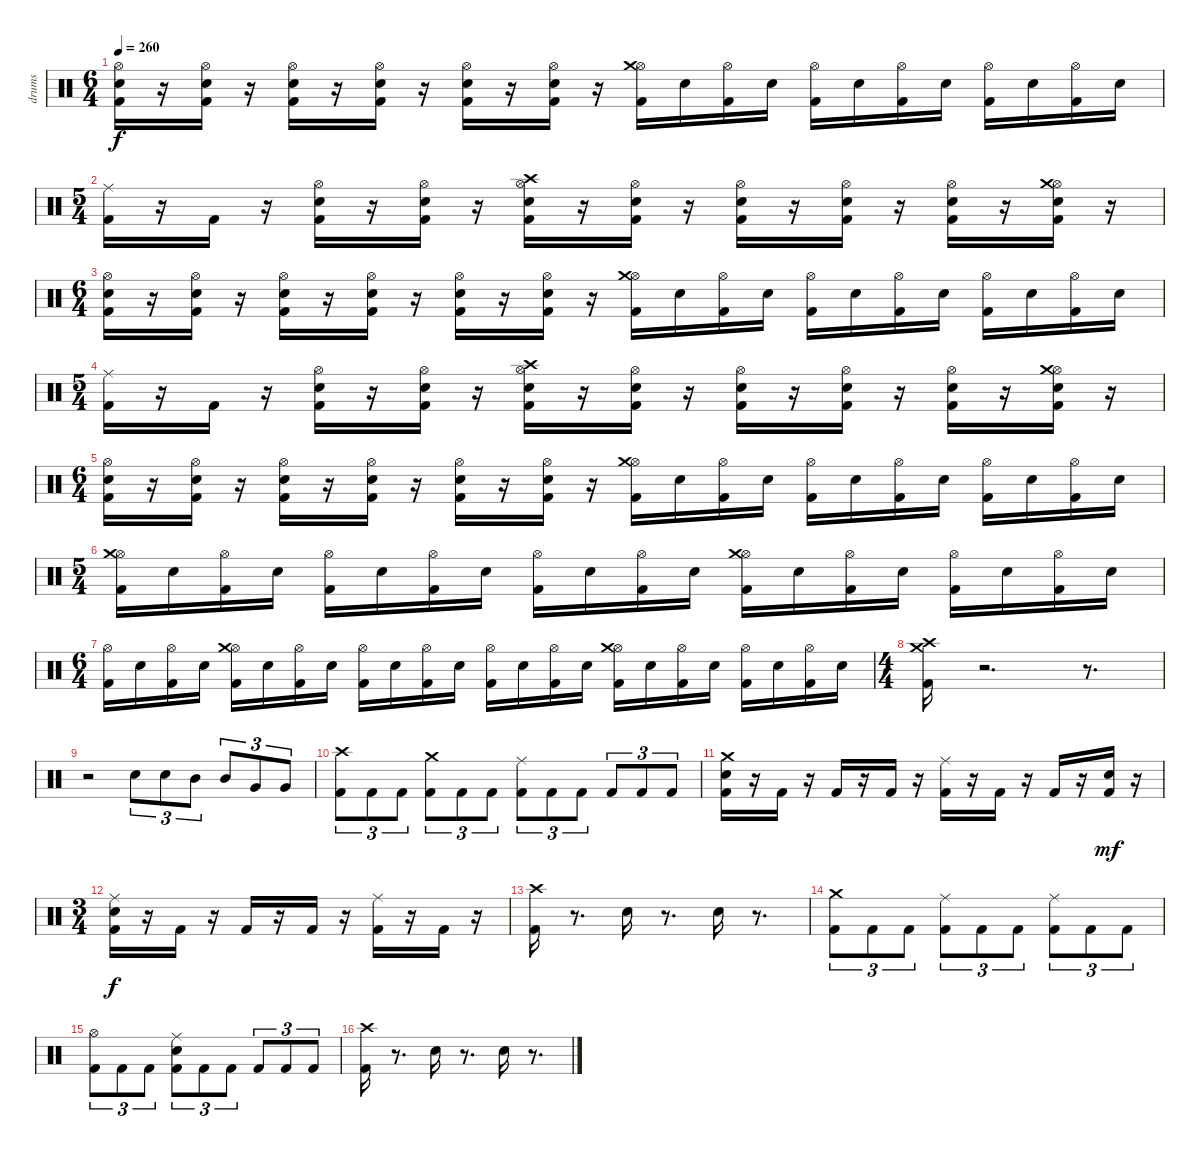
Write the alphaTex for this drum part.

\track ("drums" "drums") {instrument percussion}
\staff {score}
\articulation defaults
\ts (6 4)
\tempo 260
\clef neutral
\ks c
("Kick (hit) 2" "Snare (hit) 2" "Hi-Hat (open)").16{dy f} r.16 ("Kick (hit) 2" "Snare (hit) 2" "Hi-Hat (open)").16 r.16 ("Kick (hit) 2" "Snare (hit) 2" "Hi-Hat (open)").16 r.16 ("Kick (hit) 2" "Snare (hit) 2" "Hi-Hat (open)").16 r.16 ("Kick (hit) 2" "Snare (hit) 2" "Hi-Hat (open)").16 r.16 ("Kick (hit) 2" "Snare (hit) 2" "Hi-Hat (open)").16 r.16 ("Kick (hit) 2" "Hi-Hat (open)" "Crash medium (hit)").16 "Snare (hit) 2".16 ("Kick (hit) 2" "Hi-Hat (open)").16 "Snare (hit) 2".16 ("Kick (hit) 2" "Hi-Hat (open)").16 "Snare (hit) 2".16 ("Kick (hit) 2" "Hi-Hat (open)").16 "Snare (hit) 2".16 ("Kick (hit) 2" "Hi-Hat (open)").16 "Snare (hit) 2".16 ("Kick (hit) 2" "Hi-Hat (open)").16 "Snare (hit) 2".16 |
\ts (5 4)
("Kick (hit) 2" "Ride (middle)").16 r.16 "Kick (hit) 2".16 r.16 ("Kick (hit) 2" "Snare (hit) 2" "Hi-Hat (open)").16 r.16 ("Kick (hit) 2" "Snare (hit) 2" "Hi-Hat (open)").16 r.16 ("Kick (hit) 2" "Snare (hit) 2" "Hi-Hat (open)" "Crash high (hit)").16 r.16 ("Kick (hit) 2" "Snare (hit) 2" "Hi-Hat (open)").16 r.16 ("Kick (hit) 2" "Snare (hit) 2" "Hi-Hat (open)").16 r.16 ("Kick (hit) 2" "Snare (hit) 2" "Hi-Hat (open)").16 r.16 ("Kick (hit) 2" "Snare (hit) 2" "Hi-Hat (open)").16 r.16 ("Kick (hit) 2" "Snare (hit) 2" "Hi-Hat (open)" "Crash medium (hit)").16 r.16 |
\ts (6 4)
("Kick (hit) 2" "Snare (hit) 2" "Hi-Hat (open)").16 r.16 ("Kick (hit) 2" "Snare (hit) 2" "Hi-Hat (open)").16 r.16 ("Kick (hit) 2" "Snare (hit) 2" "Hi-Hat (open)").16 r.16 ("Kick (hit) 2" "Snare (hit) 2" "Hi-Hat (open)").16 r.16 ("Kick (hit) 2" "Snare (hit) 2" "Hi-Hat (open)").16 r.16 ("Kick (hit) 2" "Snare (hit) 2" "Hi-Hat (open)").16 r.16 ("Kick (hit) 2" "Hi-Hat (open)" "Crash medium (hit)").16 "Snare (hit) 2".16 ("Kick (hit) 2" "Hi-Hat (open)").16 "Snare (hit) 2".16 ("Kick (hit) 2" "Hi-Hat (open)").16 "Snare (hit) 2".16 ("Kick (hit) 2" "Hi-Hat (open)").16 "Snare (hit) 2".16 ("Kick (hit) 2" "Hi-Hat (open)").16 "Snare (hit) 2".16 ("Kick (hit) 2" "Hi-Hat (open)").16 "Snare (hit) 2".16 |
\ts (5 4)
("Kick (hit) 2" "Ride (middle)").16 r.16 "Kick (hit) 2".16 r.16 ("Kick (hit) 2" "Snare (hit) 2" "Hi-Hat (open)").16 r.16 ("Kick (hit) 2" "Snare (hit) 2" "Hi-Hat (open)").16 r.16 ("Kick (hit) 2" "Snare (hit) 2" "Hi-Hat (open)" "Crash high (hit)").16 r.16 ("Kick (hit) 2" "Snare (hit) 2" "Hi-Hat (open)").16 r.16 ("Kick (hit) 2" "Snare (hit) 2" "Hi-Hat (open)").16 r.16 ("Kick (hit) 2" "Snare (hit) 2" "Hi-Hat (open)").16 r.16 ("Kick (hit) 2" "Snare (hit) 2" "Hi-Hat (open)").16 r.16 ("Kick (hit) 2" "Snare (hit) 2" "Hi-Hat (open)" "Crash medium (hit)").16 r.16 |
\ts (6 4)
("Kick (hit) 2" "Snare (hit) 2" "Hi-Hat (open)").16 r.16 ("Kick (hit) 2" "Snare (hit) 2" "Hi-Hat (open)").16 r.16 ("Kick (hit) 2" "Snare (hit) 2" "Hi-Hat (open)").16 r.16 ("Kick (hit) 2" "Snare (hit) 2" "Hi-Hat (open)").16 r.16 ("Kick (hit) 2" "Snare (hit) 2" "Hi-Hat (open)").16 r.16 ("Kick (hit) 2" "Snare (hit) 2" "Hi-Hat (open)").16 r.16 ("Kick (hit) 2" "Hi-Hat (open)" "Crash medium (hit)").16 "Snare (hit) 2".16 ("Kick (hit) 2" "Hi-Hat (open)").16 "Snare (hit) 2".16 ("Kick (hit) 2" "Hi-Hat (open)").16 "Snare (hit) 2".16 ("Kick (hit) 2" "Hi-Hat (open)").16 "Snare (hit) 2".16 ("Kick (hit) 2" "Hi-Hat (open)").16 "Snare (hit) 2".16 ("Kick (hit) 2" "Hi-Hat (open)").16 "Snare (hit) 2".16 |
\ts (5 4)
("Kick (hit) 2" "Hi-Hat (open)" "Crash medium (hit)").16 "Snare (hit) 2".16 ("Kick (hit) 2" "Hi-Hat (open)").16 "Snare (hit) 2".16 ("Kick (hit) 2" "Hi-Hat (open)").16 "Snare (hit) 2".16 ("Kick (hit) 2" "Hi-Hat (open)").16 "Snare (hit) 2".16 ("Kick (hit) 2" "Hi-Hat (open)").16 "Snare (hit) 2".16 ("Kick (hit) 2" "Hi-Hat (open)").16 "Snare (hit) 2".16 ("Kick (hit) 2" "Hi-Hat (open)" "Crash medium (hit)").16 "Snare (hit) 2".16 ("Kick (hit) 2" "Hi-Hat (open)").16 "Snare (hit) 2".16 ("Kick (hit) 2" "Hi-Hat (open)").16 "Snare (hit) 2".16 ("Kick (hit) 2" "Hi-Hat (open)").16 "Snare (hit) 2".16 |
\ts (6 4)
("Kick (hit) 2" "Hi-Hat (open)").16 "Snare (hit) 2".16 ("Kick (hit) 2" "Hi-Hat (open)").16 "Snare (hit) 2".16 ("Kick (hit) 2" "Hi-Hat (open)" "Crash medium (hit)").16 "Snare (hit) 2".16 ("Kick (hit) 2" "Hi-Hat (open)").16 "Snare (hit) 2".16 ("Kick (hit) 2" "Hi-Hat (open)").16 "Snare (hit) 2".16 ("Kick (hit) 2" "Hi-Hat (open)").16 "Snare (hit) 2".16 ("Kick (hit) 2" "Hi-Hat (open)").16 "Snare (hit) 2".16 ("Kick (hit) 2" "Hi-Hat (open)").16 "Snare (hit) 2".16 ("Kick (hit) 2" "Hi-Hat (open)" "Crash medium (hit)").16 "Snare (hit) 2".16 ("Kick (hit) 2" "Hi-Hat (open)").16 "Snare (hit) 2".16 ("Kick (hit) 2" "Hi-Hat (open)").16 "Snare (hit) 2".16 ("Kick (hit) 2" "Hi-Hat (open)").16 "Snare (hit) 2".16 |
\ts (4 4)
("Kick (hit) 2" "Crash high (hit)" "Crash medium (hit)").16 r.2{d} r.8{d} |
r.2 "Snare (hit) 2".8{tu (3 2)} "Snare (hit) 2".8{tu (3 2)} "Mid Tom (hit)".8{tu (3 2)} "Mid Tom (hit)".8{tu (3 2)} "Very Low Tom (hit)".8{tu (3 2)} "Very Low Tom (hit)".8{tu (3 2)} |
("Kick (hit) 2" "Crash high (hit)").8{tu (3 2)} "Kick (hit) 2".8{tu (3 2)} "Kick (hit) 2".8{tu (3 2)} ("Kick (hit) 2" "Crash medium (hit)").8{tu (3 2)} "Kick (hit) 2".8{tu (3 2)} "Kick (hit) 2".8{tu (3 2)} ("Kick (hit) 2" "Ride (middle)").8{tu (3 2)} "Kick (hit) 2".8{tu (3 2)} "Kick (hit) 2".8{tu (3 2)} "Kick (hit) 2".8{tu (3 2)} "Kick (hit) 2".8{tu (3 2)} "Kick (hit) 2".8{tu (3 2)} |
("Kick (hit) 2" "Snare (hit) 2" "Crash medium (hit)").16 r.16 "Kick (hit) 2".16 r.16 "Kick (hit) 2".16 r.16 "Kick (hit) 2".16 r.16 ("Kick (hit) 2" "Ride (middle)").16 r.16 "Kick (hit) 2".16 r.16 "Kick (hit) 2".16 r.16 ("Kick (hit) 2" "Snare (hit) 2").16{dy mf} r.16 |
\ts (3 4)
("Kick (hit) 2" "Snare (hit) 2" "Ride (middle)").16{dy f} r.16 "Kick (hit) 2".16 r.16 "Kick (hit) 2".16 r.16 "Kick (hit) 2".16 r.16 ("Kick (hit) 2" "Ride (middle)").16 r.16 "Kick (hit) 2".16 r.16 |
("Kick (hit) 2" "Crash high (hit)").16 r.8{d} "Snare (hit) 2".16 r.8{d} "Snare (hit) 2".16 r.8{d} |
("Kick (hit) 2" "Crash medium (hit)").8{tu (3 2)} "Kick (hit) 2".8{tu (3 2)} "Kick (hit) 2".8{tu (3 2)} ("Kick (hit) 2" "Ride (middle)").8{tu (3 2)} "Kick (hit) 2".8{tu (3 2)} "Kick (hit) 2".8{tu (3 2)} ("Kick (hit) 2" "Ride (middle)").8{tu (3 2)} "Kick (hit) 2".8{tu (3 2)} "Kick (hit) 2".8{tu (3 2)} |
("Kick (hit) 2" "Hi-Hat (open)").8{tu (3 2)} "Kick (hit) 2".8{tu (3 2)} "Kick (hit) 2".8{tu (3 2)} ("Kick (hit) 2" "Snare (hit) 2" "Ride (middle)").8{tu (3 2)} "Kick (hit) 2".8{tu (3 2)} "Kick (hit) 2".8{tu (3 2)} "Kick (hit) 2".8{tu (3 2)} "Kick (hit) 2".8{tu (3 2)} "Kick (hit) 2".8{tu (3 2)} |
("Kick (hit) 2" "Crash high (hit)").16 r.8{d} "Snare (hit) 2".16 r.8{d} "Snare (hit) 2".16 r.8{d}
